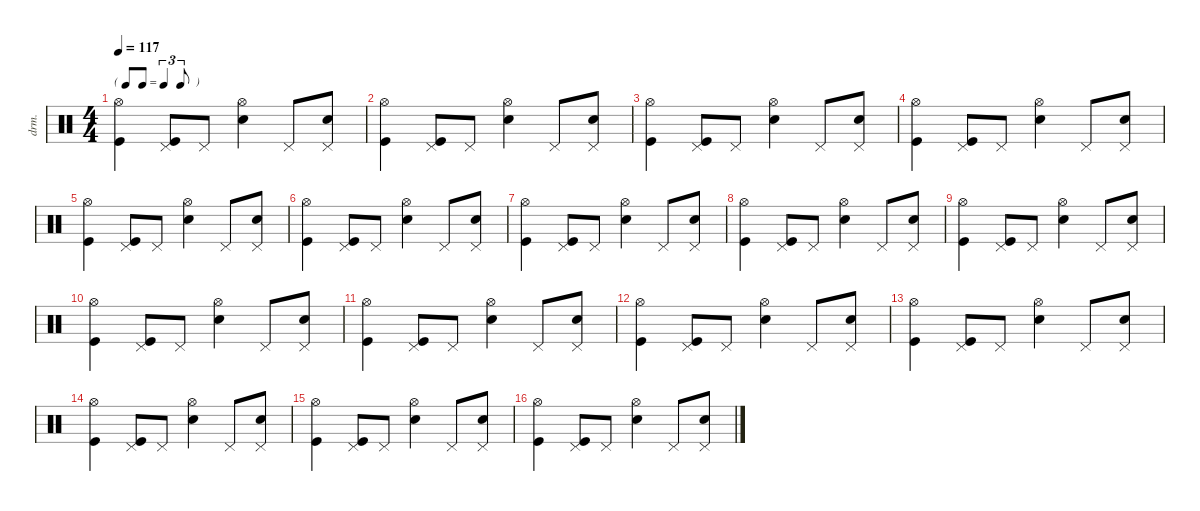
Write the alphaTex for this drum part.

\defaultSystemsLayout 4
\hideDynamics
\bracketExtendMode nobrackets
\otherSystemsTrackNameOrientation horizontal
\track ("Percussions" "drm.") {instrument percussion}
\staff {score}
\articulation defaults
\ts (4 4)
\tf triplet8th
\tempo 117
\clef neutral
\ks c
("Hi-Hat (open)" "Kick (hit)").4{dy f} ("Pedal Hi-Hat (hit)" "Kick (hit)").8 "Pedal Hi-Hat (hit)".8 ("Hi-Hat (open)" "Snare (hit) 2").4 "Pedal Hi-Hat (hit)".8 ("Pedal Hi-Hat (hit)" "Snare (hit) 2").8 |
("Hi-Hat (open)" "Kick (hit)").4 ("Pedal Hi-Hat (hit)" "Kick (hit)").8 "Pedal Hi-Hat (hit)".8 ("Hi-Hat (open)" "Snare (hit) 2").4 "Pedal Hi-Hat (hit)".8 ("Pedal Hi-Hat (hit)" "Snare (hit) 2").8 |
("Hi-Hat (open)" "Kick (hit)").4 ("Pedal Hi-Hat (hit)" "Kick (hit)").8 "Pedal Hi-Hat (hit)".8 ("Hi-Hat (open)" "Snare (hit) 2").4 "Pedal Hi-Hat (hit)".8 ("Pedal Hi-Hat (hit)" "Snare (hit) 2").8 |
("Hi-Hat (open)" "Kick (hit)").4 ("Pedal Hi-Hat (hit)" "Kick (hit)").8 "Pedal Hi-Hat (hit)".8 ("Hi-Hat (open)" "Snare (hit) 2").4 "Pedal Hi-Hat (hit)".8 ("Pedal Hi-Hat (hit)" "Snare (hit) 2").8 |
("Hi-Hat (open)" "Kick (hit)").4 ("Pedal Hi-Hat (hit)" "Kick (hit)").8 "Pedal Hi-Hat (hit)".8 ("Hi-Hat (open)" "Snare (hit) 2").4 "Pedal Hi-Hat (hit)".8 ("Pedal Hi-Hat (hit)" "Snare (hit) 2").8 |
("Hi-Hat (open)" "Kick (hit)").4 ("Pedal Hi-Hat (hit)" "Kick (hit)").8 "Pedal Hi-Hat (hit)".8 ("Hi-Hat (open)" "Snare (hit) 2").4 "Pedal Hi-Hat (hit)".8 ("Pedal Hi-Hat (hit)" "Snare (hit) 2").8 |
("Hi-Hat (open)" "Kick (hit)").4 ("Pedal Hi-Hat (hit)" "Kick (hit)").8 "Pedal Hi-Hat (hit)".8 ("Hi-Hat (open)" "Snare (hit) 2").4 "Pedal Hi-Hat (hit)".8 ("Pedal Hi-Hat (hit)" "Snare (hit) 2").8 |
("Hi-Hat (open)" "Kick (hit)").4 ("Pedal Hi-Hat (hit)" "Kick (hit)").8 "Pedal Hi-Hat (hit)".8 ("Hi-Hat (open)" "Snare (hit) 2").4 "Pedal Hi-Hat (hit)".8 ("Pedal Hi-Hat (hit)" "Snare (hit) 2").8 |
("Hi-Hat (open)" "Kick (hit)").4 ("Pedal Hi-Hat (hit)" "Kick (hit)").8 "Pedal Hi-Hat (hit)".8 ("Hi-Hat (open)" "Snare (hit) 2").4 "Pedal Hi-Hat (hit)".8 ("Pedal Hi-Hat (hit)" "Snare (hit) 2").8 |
("Hi-Hat (open)" "Kick (hit)").4 ("Pedal Hi-Hat (hit)" "Kick (hit)").8 "Pedal Hi-Hat (hit)".8 ("Hi-Hat (open)" "Snare (hit) 2").4 "Pedal Hi-Hat (hit)".8 ("Pedal Hi-Hat (hit)" "Snare (hit) 2").8 |
("Hi-Hat (open)" "Kick (hit)").4 ("Pedal Hi-Hat (hit)" "Kick (hit)").8 "Pedal Hi-Hat (hit)".8 ("Hi-Hat (open)" "Snare (hit) 2").4 "Pedal Hi-Hat (hit)".8 ("Pedal Hi-Hat (hit)" "Snare (hit) 2").8 |
("Hi-Hat (open)" "Kick (hit)").4 ("Pedal Hi-Hat (hit)" "Kick (hit)").8 "Pedal Hi-Hat (hit)".8 ("Hi-Hat (open)" "Snare (hit) 2").4 "Pedal Hi-Hat (hit)".8 ("Pedal Hi-Hat (hit)" "Snare (hit) 2").8 |
("Hi-Hat (open)" "Kick (hit)").4 ("Pedal Hi-Hat (hit)" "Kick (hit)").8 "Pedal Hi-Hat (hit)".8 ("Hi-Hat (open)" "Snare (hit) 2").4 "Pedal Hi-Hat (hit)".8 ("Pedal Hi-Hat (hit)" "Snare (hit) 2").8 |
("Hi-Hat (open)" "Kick (hit)").4 ("Pedal Hi-Hat (hit)" "Kick (hit)").8 "Pedal Hi-Hat (hit)".8 ("Hi-Hat (open)" "Snare (hit) 2").4 "Pedal Hi-Hat (hit)".8 ("Pedal Hi-Hat (hit)" "Snare (hit) 2").8 |
("Hi-Hat (open)" "Kick (hit)").4 ("Pedal Hi-Hat (hit)" "Kick (hit)").8 "Pedal Hi-Hat (hit)".8 ("Hi-Hat (open)" "Snare (hit) 2").4 "Pedal Hi-Hat (hit)".8 ("Pedal Hi-Hat (hit)" "Snare (hit) 2").8 |
("Hi-Hat (open)" "Kick (hit)").4 ("Pedal Hi-Hat (hit)" "Kick (hit)").8 "Pedal Hi-Hat (hit)".8 ("Hi-Hat (open)" "Snare (hit) 2").4 "Pedal Hi-Hat (hit)".8 ("Pedal Hi-Hat (hit)" "Snare (hit) 2").8
